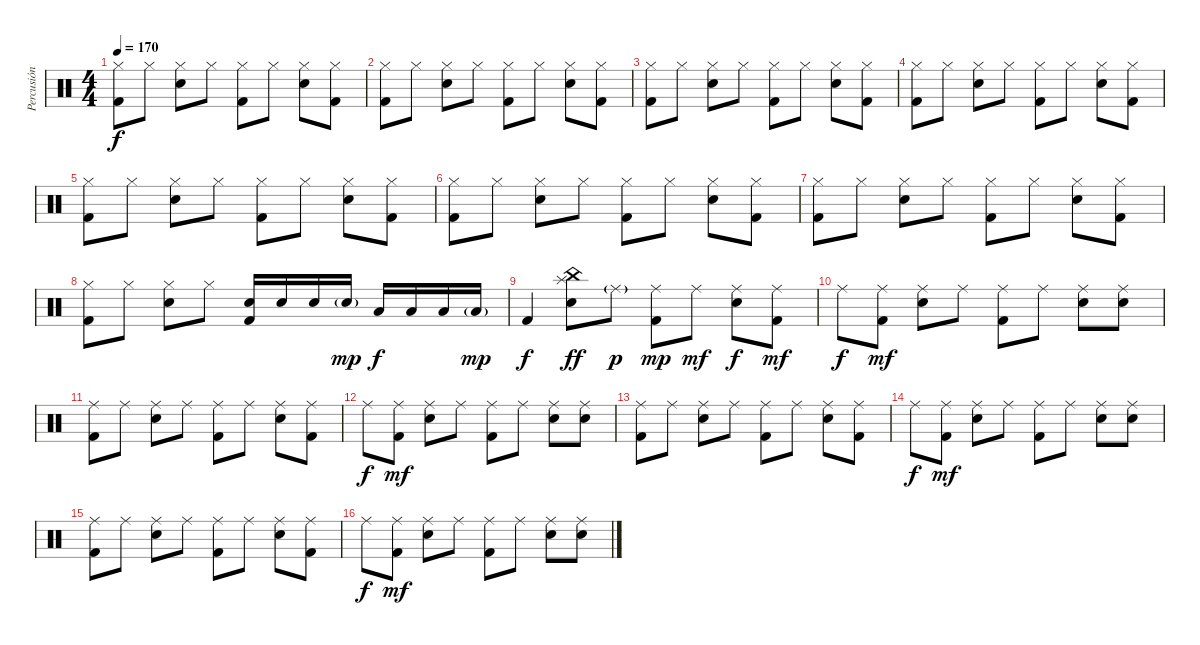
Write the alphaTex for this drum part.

\track ("Percusión" "Percusión") {instrument percussion}
\staff {score}
\articulation defaults
\ts (4 4)
\tempo 170
\clef neutral
\ks c
("Hi-Hat (closed)" "Kick (hit) 2").8{dy f} "Hi-Hat (closed)".8 ("Hi-Hat (closed)" "Electric Snare (hit)").8 "Hi-Hat (closed)".8 ("Hi-Hat (closed)" "Kick (hit) 2").8 "Hi-Hat (closed)".8 ("Hi-Hat (closed)" "Electric Snare (hit)").8 ("Hi-Hat (closed)" "Kick (hit) 2").8 |
("Hi-Hat (closed)" "Kick (hit) 2").8 "Hi-Hat (closed)".8 ("Hi-Hat (closed)" "Electric Snare (hit)").8 "Hi-Hat (closed)".8 ("Hi-Hat (closed)" "Kick (hit) 2").8 "Hi-Hat (closed)".8 ("Hi-Hat (closed)" "Electric Snare (hit)").8 ("Hi-Hat (closed)" "Kick (hit) 2").8 |
("Hi-Hat (closed)" "Kick (hit) 2").8 "Hi-Hat (closed)".8 ("Hi-Hat (closed)" "Electric Snare (hit)").8 "Hi-Hat (closed)".8 ("Hi-Hat (closed)" "Kick (hit) 2").8 "Hi-Hat (closed)".8 ("Hi-Hat (closed)" "Electric Snare (hit)").8 ("Hi-Hat (closed)" "Kick (hit) 2").8 |
("Hi-Hat (closed)" "Kick (hit) 2").8 "Hi-Hat (closed)".8 ("Hi-Hat (closed)" "Electric Snare (hit)").8 "Hi-Hat (closed)".8 ("Hi-Hat (closed)" "Kick (hit) 2").8 "Hi-Hat (closed)".8 ("Hi-Hat (closed)" "Electric Snare (hit)").8 ("Hi-Hat (closed)" "Kick (hit) 2").8 |
("Hi-Hat (closed)" "Kick (hit) 2").8 "Hi-Hat (closed)".8 ("Hi-Hat (closed)" "Electric Snare (hit)").8 "Hi-Hat (closed)".8 ("Hi-Hat (closed)" "Kick (hit) 2").8 "Hi-Hat (closed)".8 ("Hi-Hat (closed)" "Electric Snare (hit)").8 ("Hi-Hat (closed)" "Kick (hit) 2").8 |
("Hi-Hat (closed)" "Kick (hit) 2").8 "Hi-Hat (closed)".8 ("Hi-Hat (closed)" "Electric Snare (hit)").8 "Hi-Hat (closed)".8 ("Hi-Hat (closed)" "Kick (hit) 2").8 "Hi-Hat (closed)".8 ("Hi-Hat (closed)" "Electric Snare (hit)").8 ("Hi-Hat (closed)" "Kick (hit) 2").8 |
("Hi-Hat (closed)" "Kick (hit) 2").8 "Hi-Hat (closed)".8 ("Hi-Hat (closed)" "Electric Snare (hit)").8 "Hi-Hat (closed)".8 ("Hi-Hat (closed)" "Kick (hit) 2").8 "Hi-Hat (closed)".8 ("Hi-Hat (closed)" "Electric Snare (hit)").8 ("Hi-Hat (closed)" "Kick (hit) 2").8 |
("Hi-Hat (closed)" "Kick (hit) 2").8 "Hi-Hat (closed)".8 ("Hi-Hat (closed)" "Electric Snare (hit)").8 "Hi-Hat (closed)".8 ("Electric Snare (hit)" "Kick (hit) 2").16 "Electric Snare (hit)".16 "Electric Snare (hit)".16 "Electric Snare (hit)"{g}.16{dy mp} "Low Tom (hit)".16{dy f} "Low Tom (hit)".16 "Low Tom (hit)".16 "Low Tom (hit)"{g}.16{dy mp} |
"Kick (hit) 2".4{dy f} ("Splash (hit)" "China (hit)" "Electric Snare (hit)").8{dy ff} "Ride (middle)"{g}.8{dy p} ("Ride (middle)" "Kick (hit) 2").8{dy mp} "Ride (middle)".8{dy mf} ("Ride (middle)" "Electric Snare (hit)").8{dy f} ("Ride (middle)" "Kick (hit) 2").8{dy mf} |
"Ride (middle)".8{dy f} ("Ride (middle)" "Kick (hit) 2").8{dy mf} ("Ride (middle)" "Electric Snare (hit)").8 "Ride (middle)".8 ("Ride (middle)" "Kick (hit) 2").8 "Ride (middle)".8 ("Ride (middle)" "Electric Snare (hit)").8 ("Ride (middle)" "Electric Snare (hit)").8 |
("Ride (middle)" "Kick (hit) 2").8 "Ride (middle)".8 ("Ride (middle)" "Electric Snare (hit)").8 "Ride (middle)".8 ("Ride (middle)" "Kick (hit) 2").8 "Ride (middle)".8 ("Ride (middle)" "Electric Snare (hit)").8 ("Ride (middle)" "Kick (hit) 2").8 |
"Ride (middle)".8{dy f} ("Ride (middle)" "Kick (hit) 2").8{dy mf} ("Ride (middle)" "Electric Snare (hit)").8 "Ride (middle)".8 ("Ride (middle)" "Kick (hit) 2").8 "Ride (middle)".8 ("Ride (middle)" "Electric Snare (hit)").8 ("Ride (middle)" "Electric Snare (hit)").8 |
("Ride (middle)" "Kick (hit) 2").8 "Ride (middle)".8 ("Ride (middle)" "Electric Snare (hit)").8 "Ride (middle)".8 ("Ride (middle)" "Kick (hit) 2").8 "Ride (middle)".8 ("Ride (middle)" "Electric Snare (hit)").8 ("Ride (middle)" "Kick (hit) 2").8 |
"Ride (middle)".8{dy f} ("Ride (middle)" "Kick (hit) 2").8{dy mf} ("Ride (middle)" "Electric Snare (hit)").8 "Ride (middle)".8 ("Ride (middle)" "Kick (hit) 2").8 "Ride (middle)".8 ("Ride (middle)" "Electric Snare (hit)").8 ("Ride (middle)" "Electric Snare (hit)").8 |
("Ride (middle)" "Kick (hit) 2").8 "Ride (middle)".8 ("Ride (middle)" "Electric Snare (hit)").8 "Ride (middle)".8 ("Ride (middle)" "Kick (hit) 2").8 "Ride (middle)".8 ("Ride (middle)" "Electric Snare (hit)").8 ("Ride (middle)" "Kick (hit) 2").8 |
"Ride (middle)".8{dy f} ("Ride (middle)" "Kick (hit) 2").8{dy mf} ("Ride (middle)" "Electric Snare (hit)").8 "Ride (middle)".8 ("Ride (middle)" "Kick (hit) 2").8 "Ride (middle)".8 ("Ride (middle)" "Electric Snare (hit)").8 ("Ride (middle)" "Electric Snare (hit)").8
